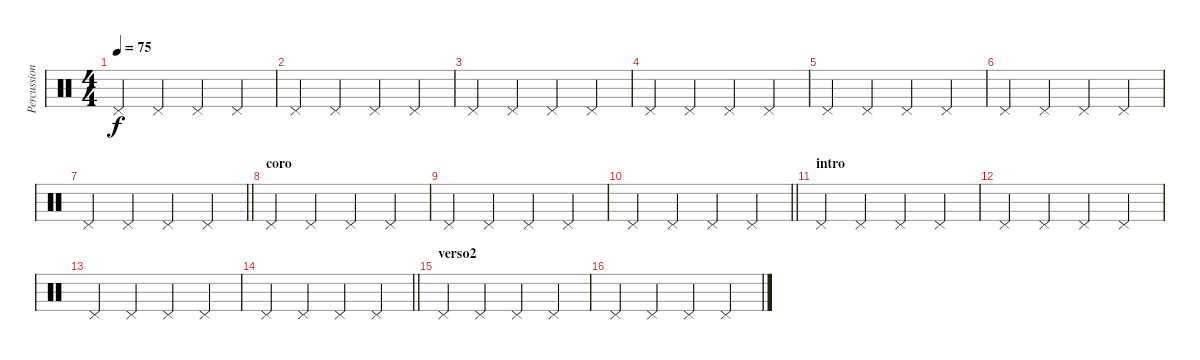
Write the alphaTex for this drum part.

\track ("Percussion" "Percussion") {instrument percussion}
\staff {score}
\articulation defaults
\ts (4 4)
\tempo 75
\clef neutral
\ks c "Pedal Hi-Hat (hit)".4{dy f} "Pedal Hi-Hat (hit)".4 "Pedal Hi-Hat (hit)".4 "Pedal Hi-Hat (hit)".4
|
"Pedal Hi-Hat (hit)".4 "Pedal Hi-Hat (hit)".4 "Pedal Hi-Hat (hit)".4 "Pedal Hi-Hat (hit)".4 |
"Pedal Hi-Hat (hit)".4 "Pedal Hi-Hat (hit)".4 "Pedal Hi-Hat (hit)".4 "Pedal Hi-Hat (hit)".4 |
"Pedal Hi-Hat (hit)".4 "Pedal Hi-Hat (hit)".4 "Pedal Hi-Hat (hit)".4 "Pedal Hi-Hat (hit)".4 |
"Pedal Hi-Hat (hit)".4 "Pedal Hi-Hat (hit)".4 "Pedal Hi-Hat (hit)".4 "Pedal Hi-Hat (hit)".4 |
"Pedal Hi-Hat (hit)".4 "Pedal Hi-Hat (hit)".4 "Pedal Hi-Hat (hit)".4 "Pedal Hi-Hat (hit)".4 |
\barLineRight lightlight "Pedal Hi-Hat (hit)".4 "Pedal Hi-Hat (hit)".4 "Pedal Hi-Hat (hit)".4 "Pedal Hi-Hat (hit)".4
|
\section ("" "coro")
"Pedal Hi-Hat (hit)".4 "Pedal Hi-Hat (hit)".4 "Pedal Hi-Hat (hit)".4 "Pedal Hi-Hat (hit)".4 |
"Pedal Hi-Hat (hit)".4 "Pedal Hi-Hat (hit)".4 "Pedal Hi-Hat (hit)".4 "Pedal Hi-Hat (hit)".4 |
\barLineRight lightlight "Pedal Hi-Hat (hit)".4 "Pedal Hi-Hat (hit)".4 "Pedal Hi-Hat (hit)".4 "Pedal Hi-Hat (hit)".4
|
\section ("" "intro")
"Pedal Hi-Hat (hit)".4 "Pedal Hi-Hat (hit)".4 "Pedal Hi-Hat (hit)".4 "Pedal Hi-Hat (hit)".4 |
"Pedal Hi-Hat (hit)".4 "Pedal Hi-Hat (hit)".4 "Pedal Hi-Hat (hit)".4 "Pedal Hi-Hat (hit)".4 |
"Pedal Hi-Hat (hit)".4 "Pedal Hi-Hat (hit)".4 "Pedal Hi-Hat (hit)".4 "Pedal Hi-Hat (hit)".4 |
\barLineRight lightlight "Pedal Hi-Hat (hit)".4 "Pedal Hi-Hat (hit)".4 "Pedal Hi-Hat (hit)".4 "Pedal Hi-Hat (hit)".4
|
\section ("" "verso2")
"Pedal Hi-Hat (hit)".4 "Pedal Hi-Hat (hit)".4 "Pedal Hi-Hat (hit)".4 "Pedal Hi-Hat (hit)".4 |
"Pedal Hi-Hat (hit)".4 "Pedal Hi-Hat (hit)".4 "Pedal Hi-Hat (hit)".4 "Pedal Hi-Hat (hit)".4
